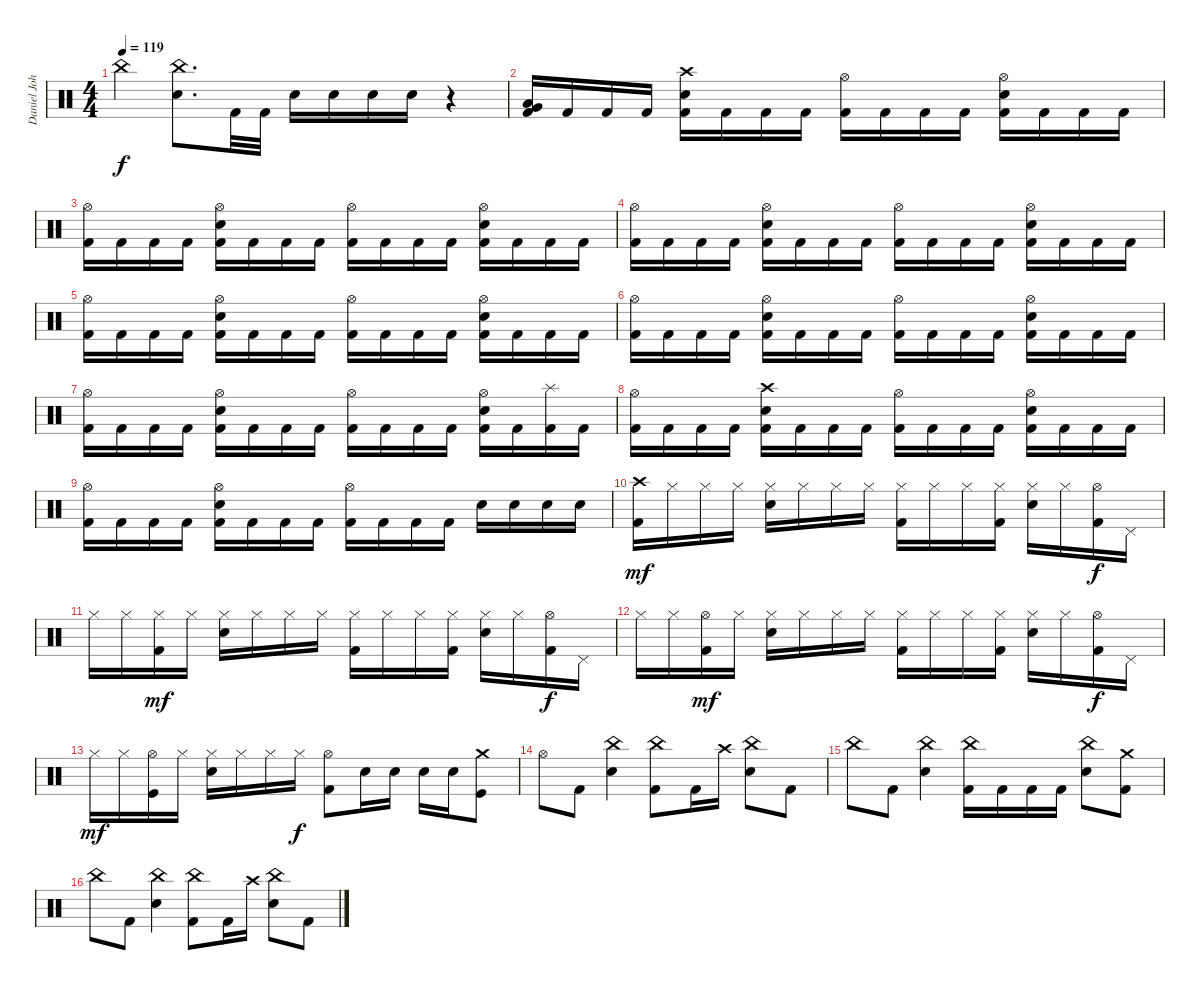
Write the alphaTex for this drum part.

\track ("Daniel John Erlandson (Drums)" "Daniel Joh") {instrument percussion}
\staff {score}
\articulation defaults
\ts (4 4)
\tempo 119
\clef neutral
\ks c "China (hit)".4{dy f}
("Snare (hit) 2" "China (hit)").8{d} "Kick (hit) 2".32 "Kick (hit) 2".32 "Snare (hit) 2".16 "Snare (hit) 2".16 "Snare (hit) 2".16 "Snare (hit) 2".16 r.4 |
("Very Low Tom (hit)" "Low Floor Tom (hit)" "Kick (hit) 2").16 "Kick (hit) 2".16 "Kick (hit) 2".16 "Kick (hit) 2".16 ("Crash high (hit)" "Snare (hit) 2" "Kick (hit) 2").16 "Kick (hit) 2".16 "Kick (hit) 2".16 "Kick (hit) 2".16 ("Hi-Hat (open)" "Kick (hit) 2").16 "Kick (hit) 2".16 "Kick (hit) 2".16 "Kick (hit) 2".16 ("Hi-Hat (open)" "Snare (hit) 2" "Kick (hit) 2").16 "Kick (hit) 2".16 "Kick (hit) 2".16 "Kick (hit) 2".16 |
("Hi-Hat (open)" "Kick (hit) 2").16 "Kick (hit) 2".16 "Kick (hit) 2".16 "Kick (hit) 2".16 ("Hi-Hat (open)" "Snare (hit) 2" "Kick (hit) 2").16 "Kick (hit) 2".16 "Kick (hit) 2".16 "Kick (hit) 2".16 ("Hi-Hat (open)" "Kick (hit) 2").16 "Kick (hit) 2".16 "Kick (hit) 2".16 "Kick (hit) 2".16 ("Hi-Hat (open)" "Snare (hit) 2" "Kick (hit) 2").16 "Kick (hit) 2".16 "Kick (hit) 2".16 "Kick (hit) 2".16 |
("Hi-Hat (open)" "Kick (hit) 2").16 "Kick (hit) 2".16 "Kick (hit) 2".16 "Kick (hit) 2".16 ("Hi-Hat (open)" "Snare (hit) 2" "Kick (hit) 2").16 "Kick (hit) 2".16 "Kick (hit) 2".16 "Kick (hit) 2".16 ("Hi-Hat (open)" "Kick (hit) 2").16 "Kick (hit) 2".16 "Kick (hit) 2".16 "Kick (hit) 2".16 ("Hi-Hat (open)" "Snare (hit) 2" "Kick (hit) 2").16 "Kick (hit) 2".16 "Kick (hit) 2".16 "Kick (hit) 2".16 |
("Hi-Hat (open)" "Kick (hit) 2").16 "Kick (hit) 2".16 "Kick (hit) 2".16 "Kick (hit) 2".16 ("Hi-Hat (open)" "Snare (hit) 2" "Kick (hit) 2").16 "Kick (hit) 2".16 "Kick (hit) 2".16 "Kick (hit) 2".16 ("Hi-Hat (open)" "Kick (hit) 2").16 "Kick (hit) 2".16 "Kick (hit) 2".16 "Kick (hit) 2".16 ("Hi-Hat (open)" "Snare (hit) 2" "Kick (hit) 2").16 "Kick (hit) 2".16 "Kick (hit) 2".16 "Kick (hit) 2".16 |
("Hi-Hat (open)" "Kick (hit) 2").16 "Kick (hit) 2".16 "Kick (hit) 2".16 "Kick (hit) 2".16 ("Hi-Hat (open)" "Snare (hit) 2" "Kick (hit) 2").16 "Kick (hit) 2".16 "Kick (hit) 2".16 "Kick (hit) 2".16 ("Hi-Hat (open)" "Kick (hit) 2").16 "Kick (hit) 2".16 "Kick (hit) 2".16 "Kick (hit) 2".16 ("Hi-Hat (open)" "Snare (hit) 2" "Kick (hit) 2").16 "Kick (hit) 2".16 "Kick (hit) 2".16 "Kick (hit) 2".16 |
("Hi-Hat (open)" "Kick (hit) 2").16 "Kick (hit) 2".16 "Kick (hit) 2".16 "Kick (hit) 2".16 ("Hi-Hat (open)" "Snare (hit) 2" "Kick (hit) 2").16 "Kick (hit) 2".16 "Kick (hit) 2".16 "Kick (hit) 2".16 ("Hi-Hat (open)" "Kick (hit) 2").16 "Kick (hit) 2".16 "Kick (hit) 2".16 "Kick (hit) 2".16 ("Hi-Hat (open)" "Snare (hit) 2" "Kick (hit) 2").16 "Kick (hit) 2".16 ("Splash (hit)" "Kick (hit) 2").16 "Kick (hit) 2".16 |
("Hi-Hat (open)" "Kick (hit) 2").16 "Kick (hit) 2".16 "Kick (hit) 2".16 "Kick (hit) 2".16 ("Crash high (hit)" "Snare (hit) 2" "Kick (hit) 2").16 "Kick (hit) 2".16 "Kick (hit) 2".16 "Kick (hit) 2".16 ("Hi-Hat (open)" "Kick (hit) 2").16 "Kick (hit) 2".16 "Kick (hit) 2".16 "Kick (hit) 2".16 ("Hi-Hat (open)" "Snare (hit) 2" "Kick (hit) 2").16 "Kick (hit) 2".16 "Kick (hit) 2".16 "Kick (hit) 2".16 |
("Hi-Hat (open)" "Kick (hit) 2").16 "Kick (hit) 2".16 "Kick (hit) 2".16 "Kick (hit) 2".16 ("Hi-Hat (open)" "Snare (hit) 2" "Kick (hit) 2").16 "Kick (hit) 2".16 "Kick (hit) 2".16 "Kick (hit) 2".16 ("Hi-Hat (open)" "Kick (hit) 2").16 "Kick (hit) 2".16 "Kick (hit) 2".16 "Kick (hit) 2".16 "Snare (hit) 2".16 "Snare (hit) 2".16 "Snare (hit) 2".16 "Snare (hit) 2".16 |
("Crash high (hit)" "Kick (hit) 2").16{dy mf} "Hi-Hat (closed)".16 "Hi-Hat (closed)".16 "Hi-Hat (closed)".16 ("Snare (hit) 2" "Hi-Hat (closed)").16 "Hi-Hat (closed)".16 "Hi-Hat (closed)".16 "Hi-Hat (closed)".16 ("Kick (hit) 2" "Hi-Hat (closed)").16 "Hi-Hat (closed)".16 "Hi-Hat (closed)".16 ("Kick (hit) 2" "Hi-Hat (closed)").16 ("Snare (hit) 2" "Hi-Hat (closed)").16 "Hi-Hat (closed)".16 ("Kick (hit) 2" "Hi-Hat (open)").16{dy f} "Pedal Hi-Hat (hit)".16 |
"Hi-Hat (closed)".16 "Hi-Hat (closed)".16 ("Kick (hit) 2" "Hi-Hat (closed)").16{dy mf} "Hi-Hat (closed)".16 ("Snare (hit) 2" "Hi-Hat (closed)").16 "Hi-Hat (closed)".16 "Hi-Hat (closed)".16 "Hi-Hat (closed)".16 ("Kick (hit) 2" "Hi-Hat (closed)").16 "Hi-Hat (closed)".16 "Hi-Hat (closed)".16 ("Kick (hit) 2" "Hi-Hat (closed)").16 ("Snare (hit) 2" "Hi-Hat (closed)").16 "Hi-Hat (closed)".16 ("Kick (hit) 2" "Hi-Hat (open)").16{dy f} "Pedal Hi-Hat (hit)".16 |
"Hi-Hat (closed)".16 "Hi-Hat (closed)".16 ("Kick (hit) 2" "Hi-Hat (open)").16{dy mf} "Hi-Hat (closed)".16 ("Snare (hit) 2" "Hi-Hat (closed)").16 "Hi-Hat (closed)".16 "Hi-Hat (closed)".16 "Hi-Hat (closed)".16 ("Kick (hit) 2" "Hi-Hat (closed)").16 "Hi-Hat (closed)".16 "Hi-Hat (closed)".16 ("Kick (hit) 2" "Hi-Hat (closed)").16 ("Snare (hit) 2" "Hi-Hat (closed)").16 "Hi-Hat (closed)".16 ("Kick (hit) 2" "Hi-Hat (open)").16{dy f} "Pedal Hi-Hat (hit)".16 |
"Hi-Hat (closed)".16{dy mf} "Hi-Hat (closed)".16 ("Kick (hit)" "Hi-Hat (open)").16 "Hi-Hat (closed)".16 ("Snare (hit) 2" "Hi-Hat (closed)").16 "Hi-Hat (closed)".16 "Hi-Hat (closed)".16 "Hi-Hat (closed)".16{dy f} ("Kick (hit) 2" "Hi-Hat (open)").8 "Snare (hit) 2".16 "Snare (hit) 2".16 "Snare (hit) 2".16 "Snare (hit) 2".16 ("Kick (hit)" "Crash medium (hit)").8 |
"Hi-Hat (open)".8 "Kick (hit) 2".8 ("Snare (hit) 2" "China (hit)").4 ("Kick (hit) 2" "China (hit)").8 "Kick (hit) 2".16 "Crash high (hit)".16 ("Snare (hit) 2" "China (hit)").8 "Kick (hit) 2".8 |
"China (hit)".8 "Kick (hit) 2".8 ("Snare (hit) 2" "China (hit)").4 ("Kick (hit) 2" "China (hit)").16 "Kick (hit) 2".16 "Kick (hit) 2".16 "Kick (hit) 2".16 ("Snare (hit) 2" "China (hit)").8 ("Kick (hit) 2" "Crash medium (hit)").8 |
"China (hit)".8 "Kick (hit) 2".8 ("Snare (hit) 2" "China (hit)").4 ("Kick (hit) 2" "China (hit)").8 "Kick (hit) 2".16 "Crash high (hit)".16 ("Snare (hit) 2" "China (hit)").8 "Kick (hit) 2".8
